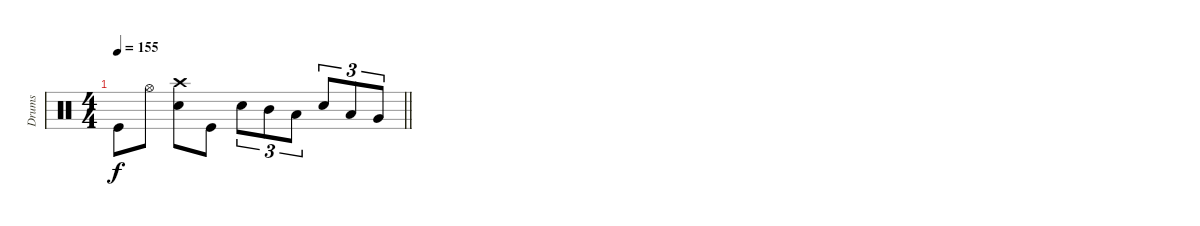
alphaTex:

\track ("Drums" "Drums") {instrument percussion}
\staff
\articulation defaults
\ts (4 4)
\tempo 155
\clef neutral
\barLineRight lightlight
\ks c "Kick (hit)".8{dy f} "Hi-Hat (open)".8
("Crash high (hit)" "Electric Snare (hit)").8 "Kick (hit)".8 "Electric Snare (hit)".8{tu (3 2)} "Mid Tom (hit)".8{tu (3 2)} "Low Tom (hit)".8{tu (3 2)} "Electric Snare (hit)".8{tu (3 2)} "Low Tom (hit)".8{tu (3 2)} "Very Low Tom (hit)".8{tu (3 2)}
